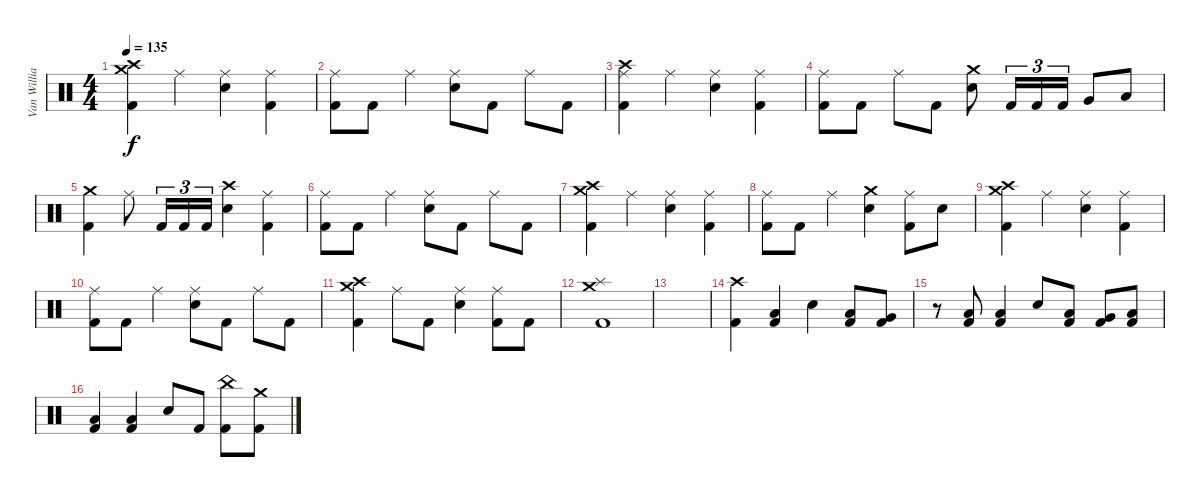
\track ("Van Williams" "Van Willia") {instrument percussion}
\staff {score}
\articulation defaults
\ts (4 4)
\tempo 135
\clef neutral
\ks c
("Crash medium (hit)" "Crash high (hit)" "Kick (hit) 2").4{dy f} "Ride (middle)".4 ("Ride (middle)" "Electric Snare (hit)").4 ("Ride (middle)" "Kick (hit) 2").4 |
("Ride (middle)" "Kick (hit) 2").8 "Kick (hit) 2".8 "Ride (middle)".4 ("Ride (middle)" "Electric Snare (hit)").8 "Kick (hit) 2".8 "Ride (middle)".8 "Kick (hit) 2".8 |
("Crash high (hit)" "Ride (middle)" "Kick (hit) 2").4 "Ride (middle)".4 ("Ride (middle)" "Electric Snare (hit)").4 ("Ride (middle)" "Kick (hit) 2").4 |
("Ride (middle)" "Kick (hit) 2").8 "Kick (hit) 2".8 "Ride (middle)".8 "Kick (hit) 2".8 ("Crash medium (hit)" "Electric Snare (hit)").8 "Kick (hit) 2".16{tu (3 2)} "Kick (hit) 2".16{tu (3 2)} "Kick (hit) 2".16{tu (3 2)} "Very Low Tom (hit)".8 "Low Floor Tom (hit)".8 |
("Crash medium (hit)" "Kick (hit) 2").4 "Ride (middle)".8 "Kick (hit) 2".16{tu (3 2)} "Kick (hit) 2".16{tu (3 2)} "Kick (hit) 2".16{tu (3 2)} ("Crash high (hit)" "Electric Snare (hit)").4 ("Ride (middle)" "Kick (hit) 2").4 |
("Ride (middle)" "Kick (hit) 2").8 "Kick (hit) 2".8 "Ride (middle)".4 ("Ride (middle)" "Electric Snare (hit)").8 "Kick (hit) 2".8 "Ride (middle)".8 "Kick (hit) 2".8 |
("Crash medium (hit)" "Crash high (hit)" "Kick (hit) 2").4 "Ride (middle)".4 ("Ride (middle)" "Electric Snare (hit)").4 ("Ride (middle)" "Kick (hit) 2").4 |
("Ride (middle)" "Kick (hit) 2").8 "Kick (hit) 2".8 "Ride (middle)".4 ("Crash medium (hit)" "Electric Snare (hit)").4 ("Ride (middle)" "Kick (hit) 2").8 "Electric Snare (hit)".8 |
("Crash medium (hit)" "Crash high (hit)" "Kick (hit) 2").4 "Ride (middle)".4 ("Ride (middle)" "Electric Snare (hit)").4 ("Ride (middle)" "Kick (hit) 2").4 |
("Ride (middle)" "Kick (hit) 2").8 "Kick (hit) 2".8 "Ride (middle)".4 ("Ride (middle)" "Electric Snare (hit)").8 "Kick (hit) 2".8 "Ride (middle)".8 "Kick (hit) 2".8 |
("Crash medium (hit)" "Crash high (hit)" "Kick (hit) 2").4 "Ride (middle)".8 "Kick (hit) 2".8 ("Ride (middle)" "Electric Snare (hit)").4 ("Ride (middle)" "Kick (hit) 2").8 "Kick (hit) 2".8 |
("Crash medium (hit)" "Splash (hit)" "Kick (hit) 2").1 |
|
("Crash high (hit)" "Kick (hit) 2").4 ("Low Floor Tom (hit)" "Kick (hit) 2").4 "Electric Snare (hit)".4 ("Low Tom (hit)" "Kick (hit) 2").8 ("Very Low Tom (hit)" "Kick (hit) 2").8 |
r.8 ("Low Floor Tom (hit)" "Kick (hit) 2").8 ("Low Floor Tom (hit)" "Kick (hit) 2").4 "Electric Snare (hit)".8 ("Low Floor Tom (hit)" "Kick (hit) 2").8 ("Very Low Tom (hit)" "Kick (hit) 2").8 ("Low Floor Tom (hit)" "Kick (hit) 2").8 |
("Low Floor Tom (hit)" "Kick (hit) 2").4 ("Low Floor Tom (hit)" "Kick (hit) 2").4 "Electric Snare (hit)".8 "Kick (hit) 2".8 ("China (hit)" "Kick (hit) 2").8 ("Crash medium (hit)" "Kick (hit) 2").8
